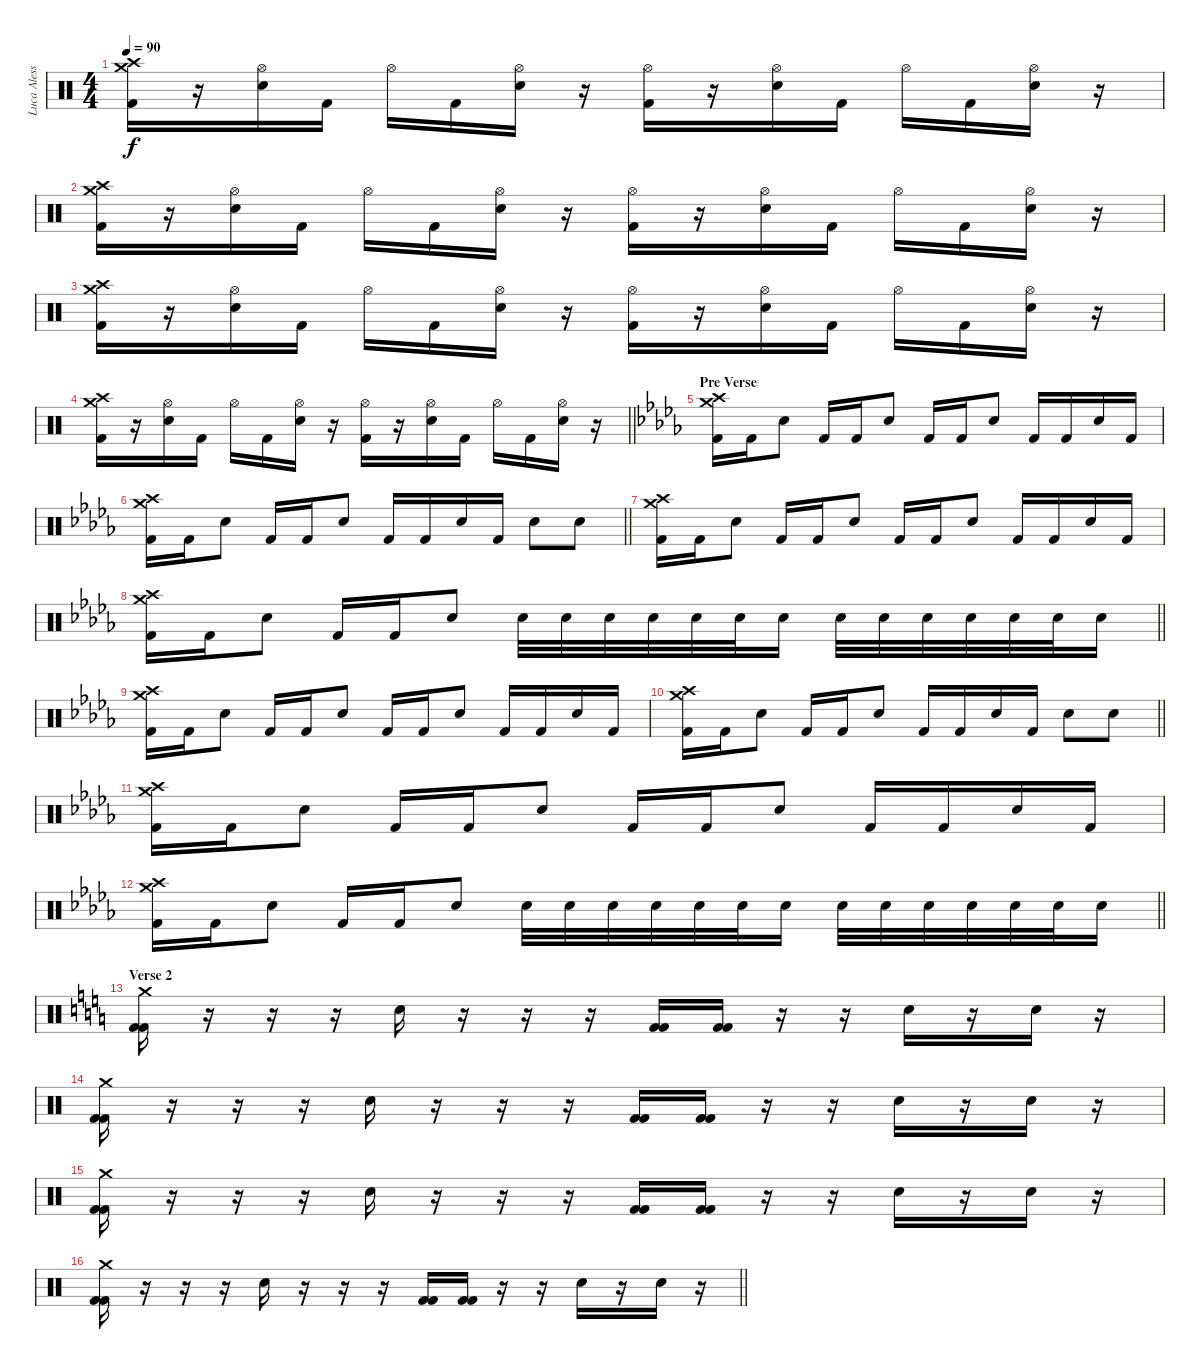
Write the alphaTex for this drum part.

\track ("Luca Alessandrelli (Drums)" "Luca Aless") {instrument percussion}
\staff {score}
\articulation defaults
\ts (4 4)
\tempo 90
\clef neutral
\ks c
("Crash high (hit)" "Crash medium (hit)" "Kick (hit) 2").16{dy f} r.16 ("Hi-Hat (open)" "Electric Snare (hit)").16 "Kick (hit) 2".16 "Hi-Hat (open)".16 "Kick (hit) 2".16 ("Hi-Hat (open)" "Electric Snare (hit)").16 r.16 ("Hi-Hat (open)" "Kick (hit) 2").16 r.16 ("Hi-Hat (open)" "Electric Snare (hit)").16 "Kick (hit) 2".16 "Hi-Hat (open)".16 "Kick (hit) 2".16 ("Hi-Hat (open)" "Electric Snare (hit)").16 r.16 |
("Crash high (hit)" "Crash medium (hit)" "Kick (hit) 2").16 r.16 ("Hi-Hat (open)" "Electric Snare (hit)").16 "Kick (hit) 2".16 "Hi-Hat (open)".16 "Kick (hit) 2".16 ("Hi-Hat (open)" "Electric Snare (hit)").16 r.16 ("Hi-Hat (open)" "Kick (hit) 2").16 r.16 ("Hi-Hat (open)" "Electric Snare (hit)").16 "Kick (hit) 2".16 "Hi-Hat (open)".16 "Kick (hit) 2".16 ("Hi-Hat (open)" "Electric Snare (hit)").16 r.16 |
("Crash high (hit)" "Crash medium (hit)" "Kick (hit) 2").16 r.16 ("Hi-Hat (open)" "Electric Snare (hit)").16 "Kick (hit) 2".16 "Hi-Hat (open)".16 "Kick (hit) 2".16 ("Hi-Hat (open)" "Electric Snare (hit)").16 r.16 ("Hi-Hat (open)" "Kick (hit) 2").16 r.16 ("Hi-Hat (open)" "Electric Snare (hit)").16 "Kick (hit) 2".16 "Hi-Hat (open)".16 "Kick (hit) 2".16 ("Hi-Hat (open)" "Electric Snare (hit)").16 r.16 |
\barLineRight lightlight
("Crash high (hit)" "Crash medium (hit)" "Kick (hit) 2").16 r.16 ("Hi-Hat (open)" "Electric Snare (hit)").16 "Kick (hit) 2".16 "Hi-Hat (open)".16 "Kick (hit) 2".16 ("Hi-Hat (open)" "Electric Snare (hit)").16 r.16 ("Hi-Hat (open)" "Kick (hit) 2").16 r.16 ("Hi-Hat (open)" "Electric Snare (hit)").16 "Kick (hit) 2".16 "Hi-Hat (open)".16 "Kick (hit) 2".16 ("Hi-Hat (open)" "Electric Snare (hit)").16 r.16 |
\section ("" "Pre Verse")
\ks db
("Crash high (hit)" "Crash medium (hit)" "Kick (hit) 2").16 "Kick (hit) 2".16 "Snare (hit) 2".8 "Kick (hit) 2".16 "Kick (hit) 2".16 "Snare (hit) 2".8 "Kick (hit) 2".16 "Kick (hit) 2".16 "Snare (hit) 2".8 "Kick (hit) 2".16 "Kick (hit) 2".16 "Snare (hit) 2".16 "Kick (hit) 2".16 |
\barLineRight lightlight
("Crash high (hit)" "Crash medium (hit)" "Kick (hit) 2").16 "Kick (hit) 2".16 "Snare (hit) 2".8 "Kick (hit) 2".16 "Kick (hit) 2".16 "Snare (hit) 2".8 "Kick (hit) 2".16 "Kick (hit) 2".16 "Snare (hit) 2".16 "Kick (hit) 2".16 "Snare (hit) 2".8 "Snare (hit) 2".8 |
("Crash high (hit)" "Crash medium (hit)" "Kick (hit) 2").16 "Kick (hit) 2".16 "Snare (hit) 2".8 "Kick (hit) 2".16 "Kick (hit) 2".16 "Snare (hit) 2".8 "Kick (hit) 2".16 "Kick (hit) 2".16 "Snare (hit) 2".8 "Kick (hit) 2".16 "Kick (hit) 2".16 "Snare (hit) 2".16 "Kick (hit) 2".16 |
\barLineRight lightlight
("Crash high (hit)" "Crash medium (hit)" "Kick (hit) 2").16 "Kick (hit) 2".16 "Snare (hit) 2".8 "Kick (hit) 2".16 "Kick (hit) 2".16 "Snare (hit) 2".8 "Snare (hit) 2".32 "Snare (hit) 2".32 "Snare (hit) 2".32 "Snare (hit) 2".32 "Snare (hit) 2".32 "Snare (hit) 2".32 "Snare (hit) 2".16 "Snare (hit) 2".32 "Snare (hit) 2".32 "Snare (hit) 2".32 "Snare (hit) 2".32 "Snare (hit) 2".32 "Snare (hit) 2".32 "Snare (hit) 2".16 |
("Crash high (hit)" "Crash medium (hit)" "Kick (hit) 2").16 "Kick (hit) 2".16 "Snare (hit) 2".8 "Kick (hit) 2".16 "Kick (hit) 2".16 "Snare (hit) 2".8 "Kick (hit) 2".16 "Kick (hit) 2".16 "Snare (hit) 2".8 "Kick (hit) 2".16 "Kick (hit) 2".16 "Snare (hit) 2".16 "Kick (hit) 2".16 |
\barLineRight lightlight
("Crash high (hit)" "Crash medium (hit)" "Kick (hit) 2").16 "Kick (hit) 2".16 "Snare (hit) 2".8 "Kick (hit) 2".16 "Kick (hit) 2".16 "Snare (hit) 2".8 "Kick (hit) 2".16 "Kick (hit) 2".16 "Snare (hit) 2".16 "Kick (hit) 2".16 "Snare (hit) 2".8 "Snare (hit) 2".8 |
("Crash high (hit)" "Crash medium (hit)" "Kick (hit) 2").16 "Kick (hit) 2".16 "Snare (hit) 2".8 "Kick (hit) 2".16 "Kick (hit) 2".16 "Snare (hit) 2".8 "Kick (hit) 2".16 "Kick (hit) 2".16 "Snare (hit) 2".8 "Kick (hit) 2".16 "Kick (hit) 2".16 "Snare (hit) 2".16 "Kick (hit) 2".16 |
\barLineRight lightlight
("Crash high (hit)" "Crash medium (hit)" "Kick (hit) 2").16 "Kick (hit) 2".16 "Snare (hit) 2".8 "Kick (hit) 2".16 "Kick (hit) 2".16 "Snare (hit) 2".8 "Snare (hit) 2".32 "Snare (hit) 2".32 "Snare (hit) 2".32 "Snare (hit) 2".32 "Snare (hit) 2".32 "Snare (hit) 2".32 "Snare (hit) 2".16 "Snare (hit) 2".32 "Snare (hit) 2".32 "Snare (hit) 2".32 "Snare (hit) 2".32 "Snare (hit) 2".32 "Snare (hit) 2".32 "Snare (hit) 2".16 |
\section ("" "Verse 2")
\ks c
("Crash medium (hit)" "Kick (hit) 2" "Kick (hit) 2").16 r.16 r.16 r.16 "Electric Snare (hit)".16 r.16 r.16 r.16 ("Kick (hit) 2" "Kick (hit) 2").16 ("Kick (hit) 2" "Kick (hit) 2").16 r.16 r.16 "Electric Snare (hit)".16 r.16 "Electric Snare (hit)".16 r.16 |
("Crash medium (hit)" "Kick (hit) 2" "Kick (hit) 2").16 r.16 r.16 r.16 "Electric Snare (hit)".16 r.16 r.16 r.16 ("Kick (hit) 2" "Kick (hit) 2").16 ("Kick (hit) 2" "Kick (hit) 2").16 r.16 r.16 "Electric Snare (hit)".16 r.16 "Electric Snare (hit)".16 r.16 |
("Crash medium (hit)" "Kick (hit) 2" "Kick (hit) 2").16 r.16 r.16 r.16 "Electric Snare (hit)".16 r.16 r.16 r.16 ("Kick (hit) 2" "Kick (hit) 2").16 ("Kick (hit) 2" "Kick (hit) 2").16 r.16 r.16 "Electric Snare (hit)".16 r.16 "Electric Snare (hit)".16 r.16 |
\barLineRight lightlight
("Crash medium (hit)" "Kick (hit) 2" "Kick (hit) 2").16 r.16 r.16 r.16 "Electric Snare (hit)".16 r.16 r.16 r.16 ("Kick (hit) 2" "Kick (hit) 2").16 ("Kick (hit) 2" "Kick (hit) 2").16 r.16 r.16 "Electric Snare (hit)".16 r.16 "Electric Snare (hit)".16 r.16
